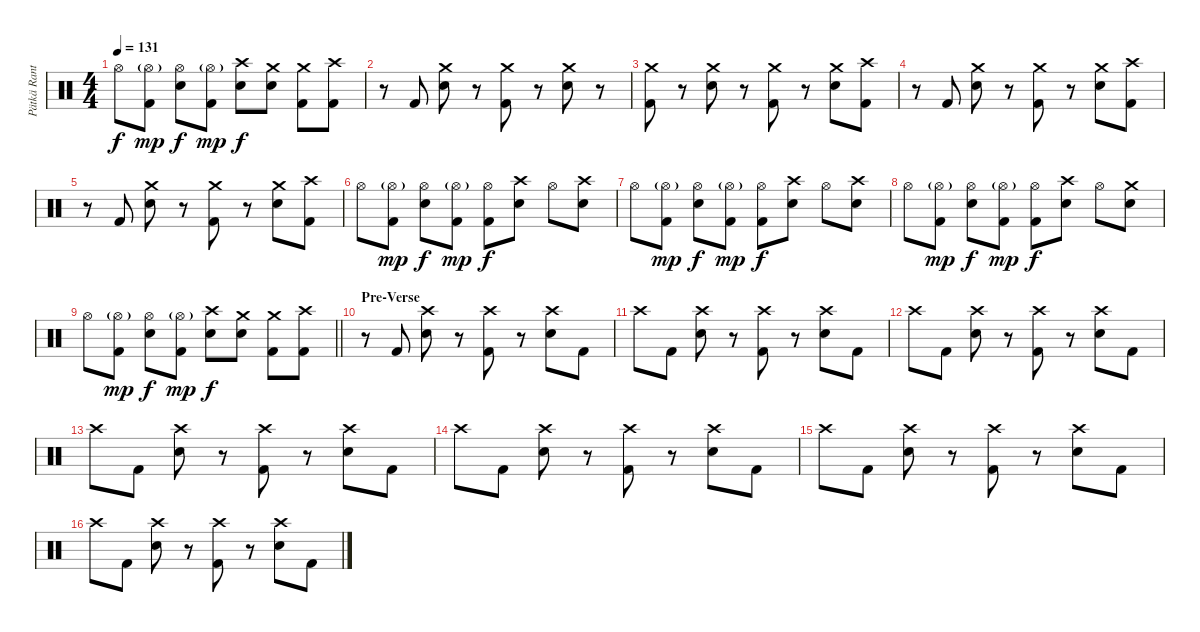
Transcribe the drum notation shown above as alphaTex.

\track ("Pätkä Rantala (Drums)" "Pätkä Rant") {instrument percussion}
\staff {score}
\articulation defaults
\ts (4 4)
\tempo 131
\clef neutral
\ks c "Hi-Hat (open)".8{dy f}
("Hi-Hat (open)"{g} "Kick (hit) 2").8{dy mp} ("Hi-Hat (open)" "Snare (hit) 2").8{dy f} ("Hi-Hat (open)"{g} "Kick (hit) 2").8{dy mp} ("Crash high (hit)" "Snare (hit) 2").8{dy f} ("Crash medium (hit)" "Snare (hit) 2").8 ("Crash medium (hit)" "Kick (hit) 2").8 ("Crash high (hit)" "Kick (hit) 2").8 |
r.8 "Kick (hit) 2".8 ("Crash medium (hit)" "Snare (hit) 2").8 r.8 ("Crash medium (hit)" "Kick (hit) 2").8 r.8 ("Crash medium (hit)" "Snare (hit) 2").8 r.8 |
("Crash medium (hit)" "Kick (hit) 2").8 r.8 ("Crash medium (hit)" "Snare (hit) 2").8 r.8 ("Crash medium (hit)" "Kick (hit) 2").8 r.8 ("Crash medium (hit)" "Snare (hit) 2").8 ("Crash high (hit)" "Kick (hit) 2").8 |
r.8 "Kick (hit) 2".8 ("Crash medium (hit)" "Snare (hit) 2").8 r.8 ("Crash medium (hit)" "Kick (hit) 2").8 r.8 ("Crash medium (hit)" "Snare (hit) 2").8 ("Crash high (hit)" "Kick (hit) 2").8 |
r.8 "Kick (hit) 2".8 ("Crash medium (hit)" "Snare (hit) 2").8 r.8 ("Crash medium (hit)" "Kick (hit) 2").8 r.8 ("Crash medium (hit)" "Snare (hit) 2").8 ("Crash high (hit)" "Kick (hit) 2").8 |
"Hi-Hat (open)".8 ("Hi-Hat (open)"{g} "Kick (hit) 2").8{dy mp} ("Hi-Hat (open)" "Snare (hit) 2").8{dy f} ("Hi-Hat (open)"{g} "Kick (hit) 2").8{dy mp} ("Hi-Hat (open)" "Kick (hit) 2").8{dy f} ("Crash high (hit)" "Snare (hit) 2").8 "Hi-Hat (open)".8 ("Crash high (hit)" "Snare (hit) 2").8 |
"Hi-Hat (open)".8 ("Hi-Hat (open)"{g} "Kick (hit) 2").8{dy mp} ("Hi-Hat (open)" "Snare (hit) 2").8{dy f} ("Hi-Hat (open)"{g} "Kick (hit) 2").8{dy mp} ("Hi-Hat (open)" "Kick (hit) 2").8{dy f} ("Crash high (hit)" "Snare (hit) 2").8 "Hi-Hat (open)".8 ("Crash high (hit)" "Snare (hit) 2").8 |
"Hi-Hat (open)".8 ("Hi-Hat (open)"{g} "Kick (hit) 2").8{dy mp} ("Hi-Hat (open)" "Snare (hit) 2").8{dy f} ("Hi-Hat (open)"{g} "Kick (hit) 2").8{dy mp} ("Hi-Hat (open)" "Kick (hit) 2").8{dy f} ("Crash high (hit)" "Snare (hit) 2").8 "Hi-Hat (open)".8 ("Crash medium (hit)" "Snare (hit) 2").8 |
\barLineRight lightlight "Hi-Hat (open)".8
("Hi-Hat (open)"{g} "Kick (hit) 2").8{dy mp} ("Hi-Hat (open)" "Snare (hit) 2").8{dy f} ("Hi-Hat (open)"{g} "Kick (hit) 2").8{dy mp} ("Crash high (hit)" "Snare (hit) 2").8{dy f} ("Crash medium (hit)" "Snare (hit) 2").8 ("Crash medium (hit)" "Kick (hit) 2").8 ("Crash high (hit)" "Kick (hit) 2").8 |
\section ("" "Pre-Verse")
r.8 "Kick (hit) 2".8 ("Crash high (hit)" "Snare (hit) 2").8 r.8 ("Crash high (hit)" "Kick (hit) 2").8 r.8 ("Crash high (hit)" "Snare (hit) 2").8 "Kick (hit) 2".8 |
"Crash high (hit)".8 "Kick (hit) 2".8 ("Crash high (hit)" "Snare (hit) 2").8 r.8 ("Crash high (hit)" "Kick (hit) 2").8 r.8 ("Crash high (hit)" "Snare (hit) 2").8 "Kick (hit) 2".8 |
"Crash high (hit)".8 "Kick (hit) 2".8 ("Crash high (hit)" "Snare (hit) 2").8 r.8 ("Crash high (hit)" "Kick (hit) 2").8 r.8 ("Crash high (hit)" "Snare (hit) 2").8 "Kick (hit) 2".8 |
"Crash high (hit)".8 "Kick (hit) 2".8 ("Crash high (hit)" "Snare (hit) 2").8 r.8 ("Crash high (hit)" "Kick (hit) 2").8 r.8 ("Crash high (hit)" "Snare (hit) 2").8 "Kick (hit) 2".8 |
"Crash high (hit)".8 "Kick (hit) 2".8 ("Crash high (hit)" "Snare (hit) 2").8 r.8 ("Crash high (hit)" "Kick (hit) 2").8 r.8 ("Crash high (hit)" "Snare (hit) 2").8 "Kick (hit) 2".8 |
"Crash high (hit)".8 "Kick (hit) 2".8 ("Crash high (hit)" "Snare (hit) 2").8 r.8 ("Crash high (hit)" "Kick (hit) 2").8 r.8 ("Crash high (hit)" "Snare (hit) 2").8 "Kick (hit) 2".8 |
"Crash high (hit)".8 "Kick (hit) 2".8 ("Crash high (hit)" "Snare (hit) 2").8 r.8 ("Crash high (hit)" "Kick (hit) 2").8 r.8 ("Crash high (hit)" "Snare (hit) 2").8 "Kick (hit) 2".8
